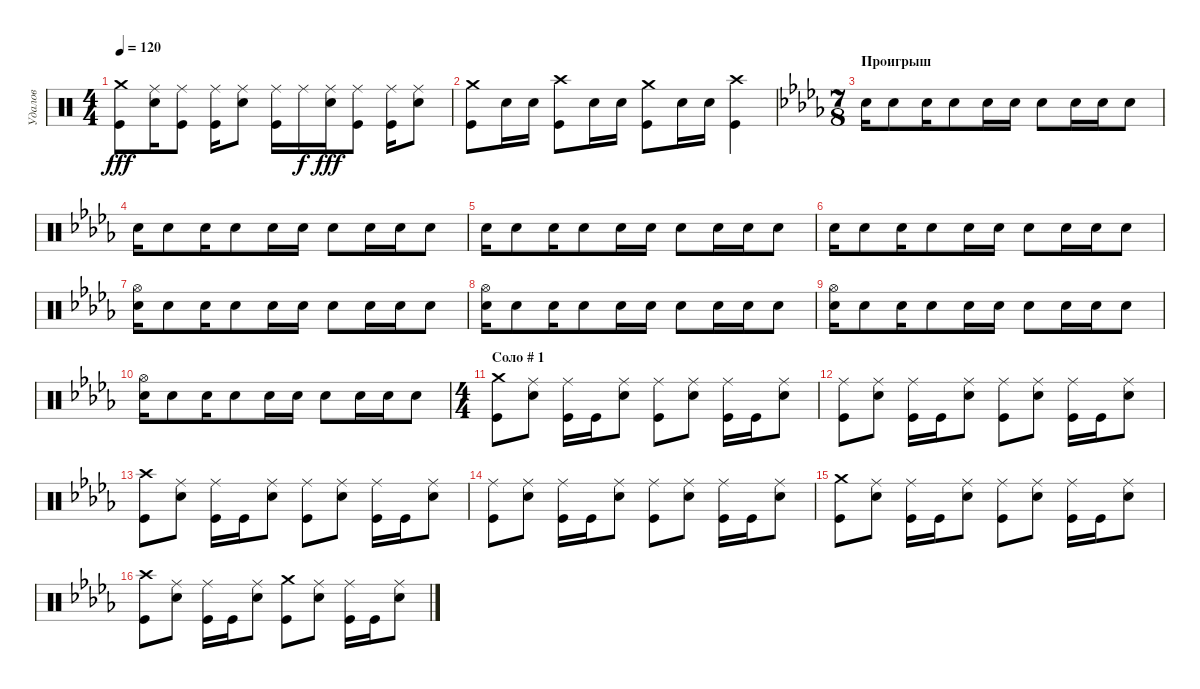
\track ("Удалов " "Удалов ") {instrument percussion}
\staff {score}
\articulation defaults
\ts (4 4)
\tempo 120
\clef neutral
\ks c
("Kick (hit)" "Crash medium (hit)").8{dy fff} ("Snare (hit) 2" "Ride (middle)").16 ("Kick (hit)" "Ride (middle)").8 ("Kick (hit)" "Ride (middle)").16 ("Snare (hit) 2" "Ride (middle)").8 ("Kick (hit)" "Ride (middle)").16 "Ride (middle)".16{dy f} ("Snare (hit) 2" "Ride (middle)").16{dy fff} ("Kick (hit)" "Ride (middle)").8 ("Kick (hit)" "Ride (middle)").16 ("Snare (hit) 2" "Ride (middle)").8 |
("Crash medium (hit)" "Kick (hit)").8 "Electric Snare (hit)".16 "Electric Snare (hit)".16 ("Crash high (hit)" "Kick (hit)").8 "Electric Snare (hit)".16 "Electric Snare (hit)".16 ("Crash medium (hit)" "Kick (hit)").8 "Electric Snare (hit)".16 "Electric Snare (hit)".16 ("Crash high (hit)" "Kick (hit)").4 |
\ts (7 8)
\section ("" "Проигрыш")
\ks db "Electric Snare (hit)".16 "Electric Snare (hit)".8 "Electric Snare (hit)".16 "Electric Snare (hit)".8 "Electric Snare (hit)".16 "Electric Snare (hit)".16 "Electric Snare (hit)".8 "Electric Snare (hit)".16 "Electric Snare (hit)".16 "Electric Snare (hit)".8
|
"Electric Snare (hit)".16 "Electric Snare (hit)".8 "Electric Snare (hit)".16 "Electric Snare (hit)".8 "Electric Snare (hit)".16 "Electric Snare (hit)".16 "Electric Snare (hit)".8 "Electric Snare (hit)".16 "Electric Snare (hit)".16 "Electric Snare (hit)".8 |
"Electric Snare (hit)".16 "Electric Snare (hit)".8 "Electric Snare (hit)".16 "Electric Snare (hit)".8 "Electric Snare (hit)".16 "Electric Snare (hit)".16 "Electric Snare (hit)".8 "Electric Snare (hit)".16 "Electric Snare (hit)".16 "Electric Snare (hit)".8 |
"Electric Snare (hit)".16 "Electric Snare (hit)".8 "Electric Snare (hit)".16 "Electric Snare (hit)".8 "Electric Snare (hit)".16 "Electric Snare (hit)".16 "Electric Snare (hit)".8 "Electric Snare (hit)".16 "Electric Snare (hit)".16 "Electric Snare (hit)".8 |
("Hi-Hat (open)" "Electric Snare (hit)").16 "Electric Snare (hit)".8 "Electric Snare (hit)".16 "Electric Snare (hit)".8 "Electric Snare (hit)".16 "Electric Snare (hit)".16 "Electric Snare (hit)".8 "Electric Snare (hit)".16 "Electric Snare (hit)".16 "Electric Snare (hit)".8 |
("Hi-Hat (open)" "Electric Snare (hit)").16 "Electric Snare (hit)".8 "Electric Snare (hit)".16 "Electric Snare (hit)".8 "Electric Snare (hit)".16 "Electric Snare (hit)".16 "Electric Snare (hit)".8 "Electric Snare (hit)".16 "Electric Snare (hit)".16 "Electric Snare (hit)".8 |
("Hi-Hat (open)" "Electric Snare (hit)").16 "Electric Snare (hit)".8 "Electric Snare (hit)".16 "Electric Snare (hit)".8 "Electric Snare (hit)".16 "Electric Snare (hit)".16 "Electric Snare (hit)".8 "Electric Snare (hit)".16 "Electric Snare (hit)".16 "Electric Snare (hit)".8 |
("Hi-Hat (open)" "Electric Snare (hit)").16 "Electric Snare (hit)".8 "Electric Snare (hit)".16 "Electric Snare (hit)".8 "Electric Snare (hit)".16 "Electric Snare (hit)".16 "Electric Snare (hit)".8 "Electric Snare (hit)".16 "Electric Snare (hit)".16 "Electric Snare (hit)".8 |
\ts (4 4)
\section ("" "Соло # 1")
("Kick (hit)" "Crash medium (hit)").8 ("Snare (hit) 2" "Ride (middle)").8 ("Kick (hit)" "Ride (middle)").16 "Kick (hit)".16 ("Snare (hit) 2" "Ride (middle)").8 ("Kick (hit)" "Ride (middle)").8 ("Snare (hit) 2" "Ride (middle)").8 ("Kick (hit)" "Ride (middle)").16 "Kick (hit)".16 ("Snare (hit) 2" "Ride (middle)").8 |
("Kick (hit)" "Ride (middle)").8 ("Snare (hit) 2" "Ride (middle)").8 ("Kick (hit)" "Ride (middle)").16 "Kick (hit)".16 ("Snare (hit) 2" "Ride (middle)").8 ("Kick (hit)" "Ride (middle)").8 ("Snare (hit) 2" "Ride (middle)").8 ("Kick (hit)" "Ride (middle)").16 "Kick (hit)".16 ("Snare (hit) 2" "Ride (middle)").8 |
("Crash high (hit)" "Kick (hit)").8 ("Snare (hit) 2" "Ride (middle)").8 ("Kick (hit)" "Ride (middle)").16 "Kick (hit)".16 ("Snare (hit) 2" "Ride (middle)").8 ("Kick (hit)" "Ride (middle)").8 ("Snare (hit) 2" "Ride (middle)").8 ("Kick (hit)" "Ride (middle)").16 "Kick (hit)".16 ("Snare (hit) 2" "Ride (middle)").8 |
("Kick (hit)" "Ride (middle)").8 ("Snare (hit) 2" "Ride (middle)").8 ("Kick (hit)" "Ride (middle)").16 "Kick (hit)".16 ("Snare (hit) 2" "Ride (middle)").8 ("Kick (hit)" "Ride (middle)").8 ("Snare (hit) 2" "Ride (middle)").8 ("Kick (hit)" "Ride (middle)").16 "Kick (hit)".16 ("Snare (hit) 2" "Ride (middle)").8 |
("Crash medium (hit)" "Kick (hit)").8 ("Snare (hit) 2" "Ride (middle)").8 ("Kick (hit)" "Ride (middle)").16 "Kick (hit)".16 ("Snare (hit) 2" "Ride (middle)").8 ("Kick (hit)" "Ride (middle)").8 ("Snare (hit) 2" "Ride (middle)").8 ("Kick (hit)" "Ride (middle)").16 "Kick (hit)".16 ("Snare (hit) 2" "Ride (middle)").8 |
("Crash high (hit)" "Kick (hit)").8 ("Snare (hit) 2" "Ride (middle)").8 ("Kick (hit)" "Ride (middle)").16 "Kick (hit)".16 ("Snare (hit) 2" "Ride (middle)").8 ("Crash medium (hit)" "Kick (hit)").8 ("Snare (hit) 2" "Ride (middle)").8 ("Kick (hit)" "Ride (middle)").16 "Kick (hit)".16 ("Snare (hit) 2" "Ride (middle)").8
